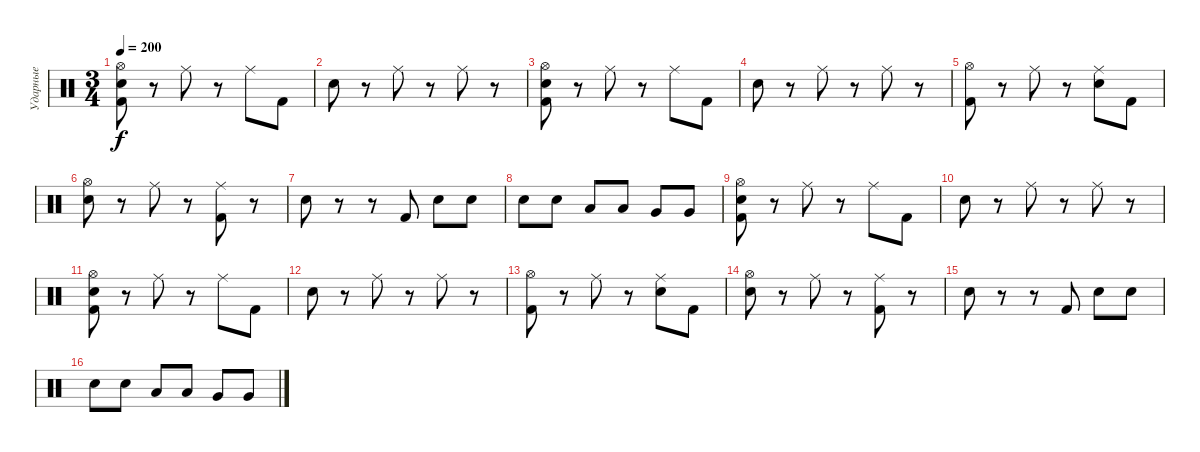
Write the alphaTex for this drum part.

\track ("Ударные" "Ударные") {instrument percussion}
\staff {score}
\articulation defaults
\ts (3 4)
\tempo 200
\clef neutral
\ks c
("Hi-Hat (open)" "Electric Snare (hit)" "Kick (hit) 2").8{dy f} r.8 "Ride (middle)".8 r.8 "Ride (middle)".8 "Kick (hit) 2".8 |
"Electric Snare (hit)".8 r.8 "Ride (middle)".8 r.8 "Ride (middle)".8 r.8 |
("Hi-Hat (open)" "Electric Snare (hit)" "Kick (hit) 2").8 r.8 "Ride (middle)".8 r.8 "Ride (middle)".8 "Kick (hit) 2".8 |
"Electric Snare (hit)".8 r.8 "Ride (middle)".8 r.8 "Ride (middle)".8 r.8 |
("Hi-Hat (open)" "Kick (hit) 2").8 r.8 "Ride (middle)".8 r.8 ("Ride (middle)" "Electric Snare (hit)").8 "Kick (hit) 2".8 |
("Hi-Hat (open)" "Electric Snare (hit)").8 r.8 "Ride (middle)".8 r.8 ("Ride (middle)" "Kick (hit) 2").8 r.8 |
"Electric Snare (hit)".8 r.8 r.8 "Kick (hit) 2".8 "Electric Snare (hit)".8 "Electric Snare (hit)".8 |
"Electric Snare (hit)".8 "Electric Snare (hit)".8 "Low Tom (hit)".8 "Low Tom (hit)".8 "Very Low Tom (hit)".8 "Very Low Tom (hit)".8 |
("Hi-Hat (open)" "Electric Snare (hit)" "Kick (hit) 2").8 r.8 "Ride (middle)".8 r.8 "Ride (middle)".8 "Kick (hit) 2".8 |
"Electric Snare (hit)".8 r.8 "Ride (middle)".8 r.8 "Ride (middle)".8 r.8 |
("Hi-Hat (open)" "Electric Snare (hit)" "Kick (hit) 2").8 r.8 "Ride (middle)".8 r.8 "Ride (middle)".8 "Kick (hit) 2".8 |
"Electric Snare (hit)".8 r.8 "Ride (middle)".8 r.8 "Ride (middle)".8 r.8 |
("Hi-Hat (open)" "Kick (hit) 2").8 r.8 "Ride (middle)".8 r.8 ("Ride (middle)" "Electric Snare (hit)").8 "Kick (hit) 2".8 |
("Hi-Hat (open)" "Electric Snare (hit)").8 r.8 "Ride (middle)".8 r.8 ("Ride (middle)" "Kick (hit) 2").8 r.8 |
"Electric Snare (hit)".8 r.8 r.8 "Kick (hit) 2".8 "Electric Snare (hit)".8 "Electric Snare (hit)".8 |
"Electric Snare (hit)".8 "Electric Snare (hit)".8 "Low Tom (hit)".8 "Low Tom (hit)".8 "Very Low Tom (hit)".8 "Very Low Tom (hit)".8
